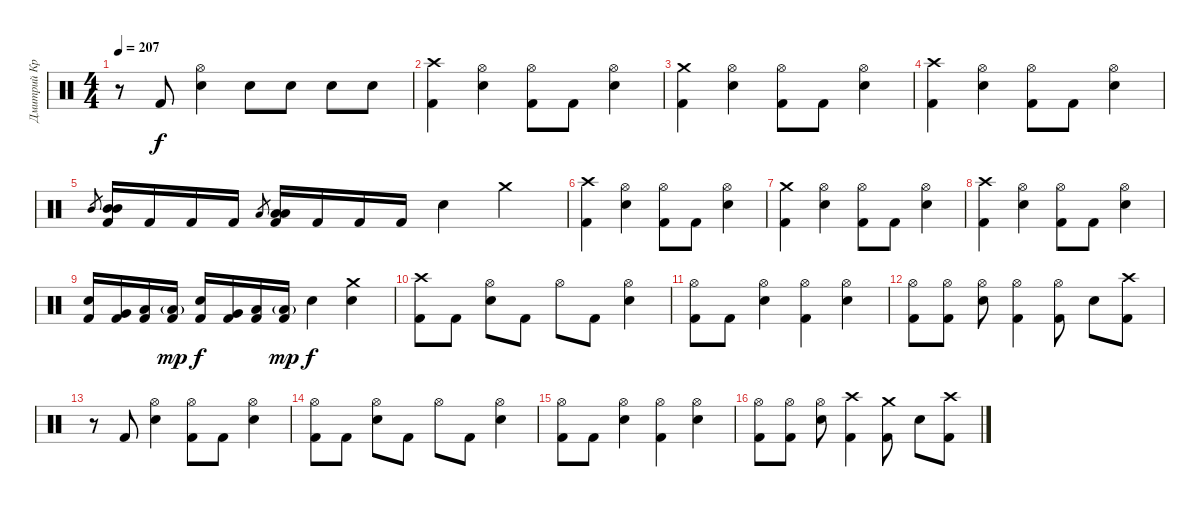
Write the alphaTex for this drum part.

\track ("Дмитрий Кривенков" "Дмитрий Кр") {instrument percussion}
\staff {score}
\articulation defaults
\ts (4 4)
\tempo 207
\clef neutral
\ks c
r.8{dy f} "Kick (hit) 2".8 ("Hi-Hat (open)" "Electric Snare (hit)").4 "Electric Snare (hit)".8 "Electric Snare (hit)".8 "Electric Snare (hit)".8 "Electric Snare (hit)".8 |
("Crash high (hit)" "Kick (hit) 2").4 ("Hi-Hat (open)" "Electric Snare (hit)").4 ("Hi-Hat (open)" "Kick (hit) 2").8 "Kick (hit) 2".8 ("Hi-Hat (open)" "Electric Snare (hit)").4 |
("Crash medium (hit)" "Kick (hit) 2").4 ("Hi-Hat (open)" "Electric Snare (hit)").4 ("Hi-Hat (open)" "Kick (hit) 2").8 "Kick (hit) 2".8 ("Hi-Hat (open)" "Electric Snare (hit)").4 |
("Crash high (hit)" "Kick (hit) 2").4 ("Hi-Hat (open)" "Electric Snare (hit)").4 ("Hi-Hat (open)" "Kick (hit) 2").8 "Kick (hit) 2".8 ("Hi-Hat (open)" "Electric Snare (hit)").4 |
"Mid Tom (hit)".8{gr} ("Mid Tom (hit)" "Mid Tom (hit)" "Kick (hit) 2").16 "Kick (hit) 2".16 "Kick (hit) 2".16 "Kick (hit) 2".16 "Low Tom (hit)".8{gr} ("Low Tom (hit)" "Low Tom (hit)" "Kick (hit) 2").16 "Kick (hit) 2".16 "Kick (hit) 2".16 "Kick (hit) 2".16 "Electric Snare (hit)".4 "Crash medium (hit)".4 |
("Crash high (hit)" "Kick (hit) 2").4 ("Hi-Hat (open)" "Electric Snare (hit)").4 ("Hi-Hat (open)" "Kick (hit) 2").8 "Kick (hit) 2".8 ("Hi-Hat (open)" "Electric Snare (hit)").4 |
("Crash medium (hit)" "Kick (hit) 2").4 ("Hi-Hat (open)" "Electric Snare (hit)").4 ("Hi-Hat (open)" "Kick (hit) 2").8 "Kick (hit) 2".8 ("Hi-Hat (open)" "Electric Snare (hit)").4 |
("Crash high (hit)" "Kick (hit) 2").4 ("Hi-Hat (open)" "Electric Snare (hit)").4 ("Hi-Hat (open)" "Kick (hit) 2").8 "Kick (hit) 2".8 ("Hi-Hat (open)" "Electric Snare (hit)").4 |
("Electric Snare (hit)" "Kick (hit) 2").16 ("Very Low Tom (hit)" "Kick (hit) 2").16 ("Low Floor Tom (hit)" "Kick (hit) 2").16 ("Low Floor Tom (hit)"{g} "Kick (hit) 2").16{dy mp} ("Electric Snare (hit)" "Kick (hit) 2").16{dy f} ("Very Low Tom (hit)" "Kick (hit) 2").16 ("Low Floor Tom (hit)" "Kick (hit) 2").16 ("Low Floor Tom (hit)"{g} "Kick (hit) 2").16{dy mp} "Electric Snare (hit)".4{dy f} ("Crash medium (hit)" "Electric Snare (hit)").4 |
("Crash high (hit)" "Kick (hit) 2").8 "Kick (hit) 2".8 ("Hi-Hat (open)" "Electric Snare (hit)").8 "Kick (hit) 2".8 "Hi-Hat (open)".8 "Kick (hit) 2".8 ("Hi-Hat (open)" "Electric Snare (hit)").4 |
("Hi-Hat (open)" "Kick (hit) 2").8 "Kick (hit) 2".8 ("Hi-Hat (open)" "Electric Snare (hit)").4 ("Hi-Hat (open)" "Kick (hit) 2").4 ("Hi-Hat (open)" "Electric Snare (hit)").4 |
("Hi-Hat (open)" "Kick (hit) 2").8 ("Hi-Hat (open)" "Kick (hit) 2").8 ("Hi-Hat (open)" "Electric Snare (hit)").8 ("Hi-Hat (open)" "Kick (hit) 2").4 ("Hi-Hat (open)" "Kick (hit) 2").8 "Electric Snare (hit)".8 ("Crash high (hit)" "Kick (hit) 2").8 |
r.8 "Kick (hit) 2".8 ("Hi-Hat (open)" "Electric Snare (hit)").4 ("Hi-Hat (open)" "Kick (hit) 2").8 "Kick (hit) 2".8 ("Hi-Hat (open)" "Electric Snare (hit)").4 |
("Hi-Hat (open)" "Kick (hit) 2").8 "Kick (hit) 2".8 ("Hi-Hat (open)" "Electric Snare (hit)").8 "Kick (hit) 2".8 "Hi-Hat (open)".8 "Kick (hit) 2".8 ("Hi-Hat (open)" "Electric Snare (hit)").4 |
("Hi-Hat (open)" "Kick (hit) 2").8 "Kick (hit) 2".8 ("Hi-Hat (open)" "Electric Snare (hit)").4 ("Hi-Hat (open)" "Kick (hit) 2").4 ("Hi-Hat (open)" "Electric Snare (hit)").4 |
("Hi-Hat (open)" "Kick (hit) 2").8 ("Hi-Hat (open)" "Kick (hit) 2").8 ("Hi-Hat (open)" "Electric Snare (hit)").8 ("Crash high (hit)" "Kick (hit) 2").4 ("Crash medium (hit)" "Kick (hit) 2").8 "Electric Snare (hit)".8 ("Crash high (hit)" "Kick (hit) 2").8
